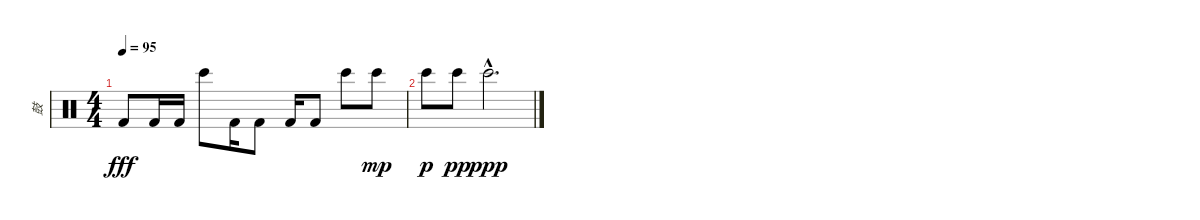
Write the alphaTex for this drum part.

\track ("鼓" "鼓") {instrument percussion}
\staff {score}
\articulation defaults
\ts (4 4)
\tempo 95
\clef neutral
\ks c "Kick (hit) 2".8{dy fff} "Kick (hit) 2".16 "Kick (hit) 2".16 "Bongo High (hit)".8 "Kick (hit) 2".16 "Kick (hit) 2".8 "Kick (hit) 2".16 "Kick (hit) 2".8 "Bongo High (hit)".8 "Bongo High (hit)".8{dy mp}
|
"Bongo High (hit)".8{dy p} "Bongo High (hit)".8{dy pp} "Bongo High (hit)"{hac}.2{d dy ppp}
